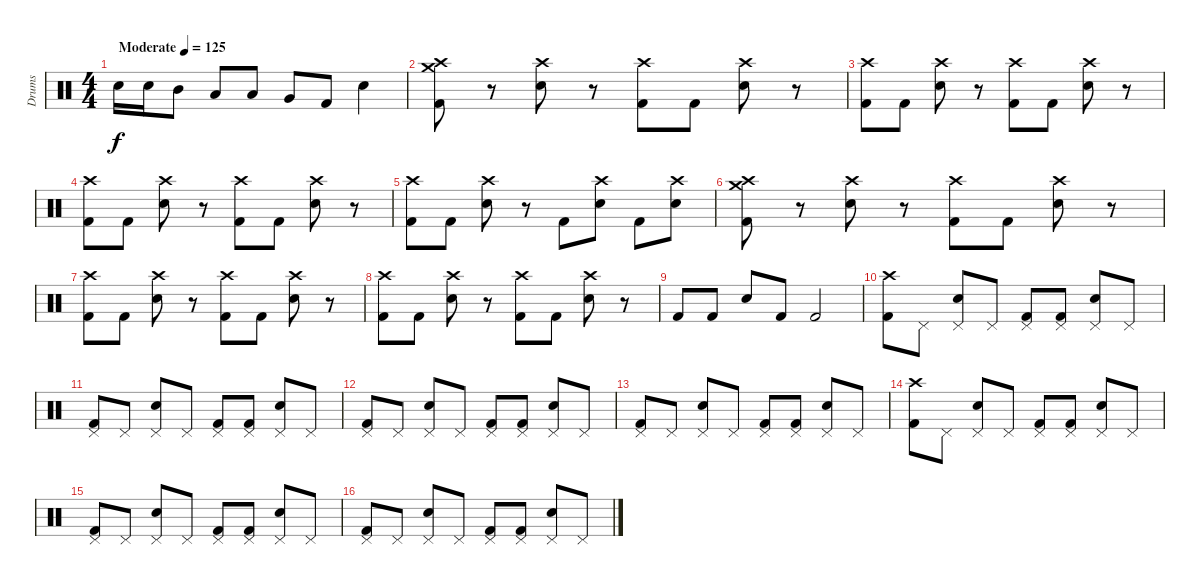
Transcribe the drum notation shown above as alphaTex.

\track ("Drums" "Drums") {instrument percussion}
\staff {score}
\articulation defaults
\ts (4 4)
\tempo (125 "Moderate")
\clef neutral
\ks c "Snare (hit) 2".16{dy f} "Snare (hit) 2".16 "Mid Tom (hit)".8 "Low Tom (hit)".8 "Low Tom (hit)".8 "Very Low Tom (hit)".8 "Kick (hit) 2".8 "Snare (hit) 2".4
|
("Crash medium (hit)" "Crash high (hit)" "Kick (hit) 2").8 r.8 ("Crash high (hit)" "Snare (hit) 2").8 r.8 ("Crash high (hit)" "Kick (hit) 2").8 "Kick (hit) 2".8 ("Crash high (hit)" "Snare (hit) 2").8 r.8 |
("Crash high (hit)" "Kick (hit) 2").8 "Kick (hit) 2".8 ("Crash high (hit)" "Snare (hit) 2").8 r.8 ("Crash high (hit)" "Kick (hit) 2").8 "Kick (hit) 2".8 ("Crash high (hit)" "Snare (hit) 2").8 r.8 |
("Crash high (hit)" "Kick (hit) 2").8 "Kick (hit) 2".8 ("Crash high (hit)" "Snare (hit) 2").8 r.8 ("Crash high (hit)" "Kick (hit) 2").8 "Kick (hit) 2".8 ("Crash high (hit)" "Snare (hit) 2").8 r.8 |
("Crash high (hit)" "Kick (hit) 2").8 "Kick (hit) 2".8 ("Crash high (hit)" "Snare (hit) 2").8 r.8 "Kick (hit) 2".8 ("Crash high (hit)" "Snare (hit) 2").8 "Kick (hit) 2".8 ("Crash high (hit)" "Snare (hit) 2").8 |
("Crash medium (hit)" "Crash high (hit)" "Kick (hit) 2").8 r.8 ("Crash high (hit)" "Snare (hit) 2").8 r.8 ("Crash high (hit)" "Kick (hit) 2").8 "Kick (hit) 2".8 ("Crash high (hit)" "Snare (hit) 2").8 r.8 |
("Crash high (hit)" "Kick (hit) 2").8 "Kick (hit) 2".8 ("Crash high (hit)" "Snare (hit) 2").8 r.8 ("Crash high (hit)" "Kick (hit) 2").8 "Kick (hit) 2".8 ("Crash high (hit)" "Snare (hit) 2").8 r.8 |
("Crash high (hit)" "Kick (hit) 2").8 "Kick (hit) 2".8 ("Crash high (hit)" "Snare (hit) 2").8 r.8 ("Crash high (hit)" "Kick (hit) 2").8 "Kick (hit) 2".8 ("Crash high (hit)" "Snare (hit) 2").8 r.8 |
"Kick (hit) 2".8 "Kick (hit) 2".8 "Snare (hit) 2".8 "Kick (hit) 2".8 "Kick (hit) 2".2 |
("Crash high (hit)" "Kick (hit) 2").8 "Pedal Hi-Hat (hit)".8 ("Pedal Hi-Hat (hit)" "Snare (hit) 2").8 "Pedal Hi-Hat (hit)".8 ("Pedal Hi-Hat (hit)" "Kick (hit) 2").8 ("Pedal Hi-Hat (hit)" "Kick (hit) 2").8 ("Pedal Hi-Hat (hit)" "Snare (hit) 2").8 "Pedal Hi-Hat (hit)".8 |
("Pedal Hi-Hat (hit)" "Kick (hit) 2").8 "Pedal Hi-Hat (hit)".8 ("Pedal Hi-Hat (hit)" "Snare (hit) 2").8 "Pedal Hi-Hat (hit)".8 ("Pedal Hi-Hat (hit)" "Kick (hit) 2").8 ("Pedal Hi-Hat (hit)" "Kick (hit) 2").8 ("Pedal Hi-Hat (hit)" "Snare (hit) 2").8 "Pedal Hi-Hat (hit)".8 |
("Pedal Hi-Hat (hit)" "Kick (hit) 2").8 "Pedal Hi-Hat (hit)".8 ("Pedal Hi-Hat (hit)" "Snare (hit) 2").8 "Pedal Hi-Hat (hit)".8 ("Pedal Hi-Hat (hit)" "Kick (hit) 2").8 ("Pedal Hi-Hat (hit)" "Kick (hit) 2").8 ("Pedal Hi-Hat (hit)" "Snare (hit) 2").8 "Pedal Hi-Hat (hit)".8 |
("Pedal Hi-Hat (hit)" "Kick (hit) 2").8 "Pedal Hi-Hat (hit)".8 ("Pedal Hi-Hat (hit)" "Snare (hit) 2").8 "Pedal Hi-Hat (hit)".8 ("Pedal Hi-Hat (hit)" "Kick (hit) 2").8 ("Pedal Hi-Hat (hit)" "Kick (hit) 2").8 ("Pedal Hi-Hat (hit)" "Snare (hit) 2").8 "Pedal Hi-Hat (hit)".8 |
("Crash high (hit)" "Kick (hit) 2").8 "Pedal Hi-Hat (hit)".8 ("Pedal Hi-Hat (hit)" "Snare (hit) 2").8 "Pedal Hi-Hat (hit)".8 ("Pedal Hi-Hat (hit)" "Kick (hit) 2").8 ("Pedal Hi-Hat (hit)" "Kick (hit) 2").8 ("Pedal Hi-Hat (hit)" "Snare (hit) 2").8 "Pedal Hi-Hat (hit)".8 |
("Pedal Hi-Hat (hit)" "Kick (hit) 2").8 "Pedal Hi-Hat (hit)".8 ("Pedal Hi-Hat (hit)" "Snare (hit) 2").8 "Pedal Hi-Hat (hit)".8 ("Pedal Hi-Hat (hit)" "Kick (hit) 2").8 ("Pedal Hi-Hat (hit)" "Kick (hit) 2").8 ("Pedal Hi-Hat (hit)" "Snare (hit) 2").8 "Pedal Hi-Hat (hit)".8 |
("Pedal Hi-Hat (hit)" "Kick (hit) 2").8 "Pedal Hi-Hat (hit)".8 ("Pedal Hi-Hat (hit)" "Snare (hit) 2").8 "Pedal Hi-Hat (hit)".8 ("Pedal Hi-Hat (hit)" "Kick (hit) 2").8 ("Pedal Hi-Hat (hit)" "Kick (hit) 2").8 ("Pedal Hi-Hat (hit)" "Snare (hit) 2").8 "Pedal Hi-Hat (hit)".8
